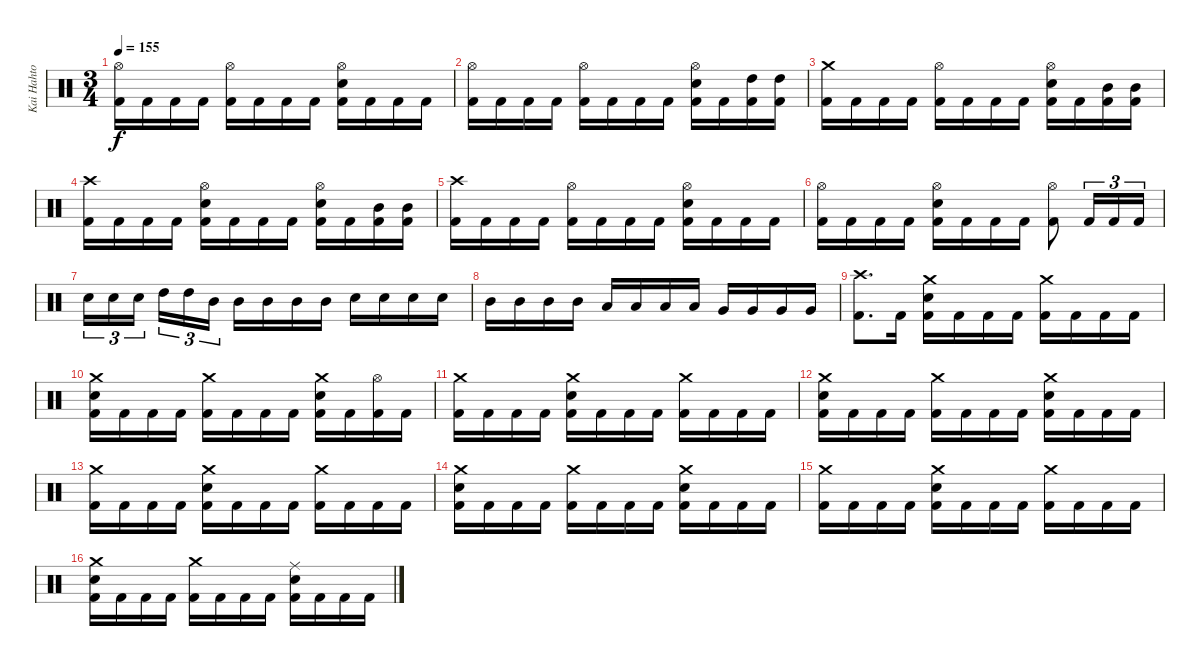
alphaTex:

\track ("Kai Hahto" "Kai Hahto") {instrument percussion}
\staff {score}
\articulation defaults
\ts (3 4)
\tempo 155
\clef neutral
\ks c
("Hi-Hat (open)" "Kick (hit) 2").16{dy f} "Kick (hit) 2".16 "Kick (hit) 2".16 "Kick (hit) 2".16 ("Hi-Hat (open)" "Kick (hit) 2").16 "Kick (hit) 2".16 "Kick (hit) 2".16 "Kick (hit) 2".16 ("Hi-Hat (open)" "Electric Snare (hit)" "Kick (hit) 2").16 "Kick (hit) 2".16 "Kick (hit) 2".16 "Kick (hit) 2".16 |
("Hi-Hat (open)" "Kick (hit) 2").16 "Kick (hit) 2".16 "Kick (hit) 2".16 "Kick (hit) 2".16 ("Hi-Hat (open)" "Kick (hit) 2").16 "Kick (hit) 2".16 "Kick (hit) 2".16 "Kick (hit) 2".16 ("Hi-Hat (open)" "Electric Snare (hit)" "Kick (hit) 2").16 "Kick (hit) 2".16 ("High Tom (hit)" "Kick (hit) 2").16 ("High Tom (hit)" "Kick (hit) 2").16 |
("Crash medium (hit)" "Kick (hit) 2").16 "Kick (hit) 2".16 "Kick (hit) 2".16 "Kick (hit) 2".16 ("Hi-Hat (open)" "Kick (hit) 2").16 "Kick (hit) 2".16 "Kick (hit) 2".16 "Kick (hit) 2".16 ("Hi-Hat (open)" "Electric Snare (hit)" "Kick (hit) 2").16 "Kick (hit) 2".16 ("Mid Tom (hit)" "Kick (hit) 2").16 ("Mid Tom (hit)" "Kick (hit) 2").16 |
("Crash high (hit)" "Kick (hit) 2").16 "Kick (hit) 2".16 "Kick (hit) 2".16 "Kick (hit) 2".16 ("Hi-Hat (open)" "Electric Snare (hit)" "Kick (hit) 2").16 "Kick (hit) 2".16 "Kick (hit) 2".16 "Kick (hit) 2".16 ("Hi-Hat (open)" "Electric Snare (hit)" "Kick (hit) 2").16 "Kick (hit) 2".16 ("Mid Tom (hit)" "Kick (hit) 2").16 ("Mid Tom (hit)" "Kick (hit) 2").16 |
("Crash high (hit)" "Kick (hit) 2").16 "Kick (hit) 2".16 "Kick (hit) 2".16 "Kick (hit) 2".16 ("Hi-Hat (open)" "Kick (hit) 2").16 "Kick (hit) 2".16 "Kick (hit) 2".16 "Kick (hit) 2".16 ("Hi-Hat (open)" "Electric Snare (hit)" "Kick (hit) 2").16 "Kick (hit) 2".16 "Kick (hit) 2".16 "Kick (hit) 2".16 |
("Hi-Hat (open)" "Kick (hit) 2").16 "Kick (hit) 2".16 "Kick (hit) 2".16 "Kick (hit) 2".16 ("Hi-Hat (open)" "Electric Snare (hit)" "Kick (hit) 2").16 "Kick (hit) 2".16 "Kick (hit) 2".16 "Kick (hit) 2".16 ("Hi-Hat (open)" "Kick (hit) 2").8 "Kick (hit) 2".16{tu (3 2)} "Kick (hit) 2".16{tu (3 2)} "Kick (hit) 2".16{tu (3 2)} |
"Electric Snare (hit)".16{tu (3 2)} "Electric Snare (hit)".16{tu (3 2)} "Electric Snare (hit)".16{tu (3 2)} "High Tom (hit)".16{tu (3 2)} "High Tom (hit)".16{tu (3 2)} "Mid Tom (hit)".16{tu (3 2)} "Mid Tom (hit)".16 "Mid Tom (hit)".16 "Mid Tom (hit)".16 "Mid Tom (hit)".16 "Electric Snare (hit)".16 "Electric Snare (hit)".16 "Electric Snare (hit)".16 "Electric Snare (hit)".16 |
"Mid Tom (hit)".16 "Mid Tom (hit)".16 "Mid Tom (hit)".16 "Mid Tom (hit)".16 "Low Tom (hit)".16 "Low Tom (hit)".16 "Low Tom (hit)".16 "Low Tom (hit)".16 "Very Low Tom (hit)".16 "Very Low Tom (hit)".16 "Very Low Tom (hit)".16 "Very Low Tom (hit)".16 |
("Crash high (hit)" "Kick (hit) 2").8{d} "Kick (hit) 2".16 ("Crash medium (hit)" "Electric Snare (hit)" "Kick (hit) 2").16 "Kick (hit) 2".16 "Kick (hit) 2".16 "Kick (hit) 2".16 ("Crash medium (hit)" "Kick (hit) 2").16 "Kick (hit) 2".16 "Kick (hit) 2".16 "Kick (hit) 2".16 |
("Crash medium (hit)" "Electric Snare (hit)" "Kick (hit) 2").16 "Kick (hit) 2".16 "Kick (hit) 2".16 "Kick (hit) 2".16 ("Crash medium (hit)" "Kick (hit) 2").16 "Kick (hit) 2".16 "Kick (hit) 2".16 "Kick (hit) 2".16 ("Crash medium (hit)" "Electric Snare (hit)" "Kick (hit) 2").16 "Kick (hit) 2".16 ("Hi-Hat (open)" "Kick (hit) 2").16 "Kick (hit) 2".16 |
("Crash medium (hit)" "Kick (hit) 2").16 "Kick (hit) 2".16 "Kick (hit) 2".16 "Kick (hit) 2".16 ("Crash medium (hit)" "Electric Snare (hit)" "Kick (hit) 2").16 "Kick (hit) 2".16 "Kick (hit) 2".16 "Kick (hit) 2".16 ("Crash medium (hit)" "Kick (hit) 2").16 "Kick (hit) 2".16 "Kick (hit) 2".16 "Kick (hit) 2".16 |
("Crash medium (hit)" "Electric Snare (hit)" "Kick (hit) 2").16 "Kick (hit) 2".16 "Kick (hit) 2".16 "Kick (hit) 2".16 ("Crash medium (hit)" "Kick (hit) 2").16 "Kick (hit) 2".16 "Kick (hit) 2".16 "Kick (hit) 2".16 ("Crash medium (hit)" "Electric Snare (hit)" "Kick (hit) 2").16 "Kick (hit) 2".16 "Kick (hit) 2".16 "Kick (hit) 2".16 |
("Crash medium (hit)" "Kick (hit) 2").16 "Kick (hit) 2".16 "Kick (hit) 2".16 "Kick (hit) 2".16 ("Crash medium (hit)" "Electric Snare (hit)" "Kick (hit) 2").16 "Kick (hit) 2".16 "Kick (hit) 2".16 "Kick (hit) 2".16 ("Crash medium (hit)" "Kick (hit) 2").16 "Kick (hit) 2".16 "Kick (hit) 2".16 "Kick (hit) 2".16 |
("Crash medium (hit)" "Electric Snare (hit)" "Kick (hit) 2").16 "Kick (hit) 2".16 "Kick (hit) 2".16 "Kick (hit) 2".16 ("Crash medium (hit)" "Kick (hit) 2").16 "Kick (hit) 2".16 "Kick (hit) 2".16 "Kick (hit) 2".16 ("Crash medium (hit)" "Electric Snare (hit)" "Kick (hit) 2").16 "Kick (hit) 2".16 "Kick (hit) 2".16 "Kick (hit) 2".16 |
("Crash medium (hit)" "Kick (hit) 2").16 "Kick (hit) 2".16 "Kick (hit) 2".16 "Kick (hit) 2".16 ("Crash medium (hit)" "Electric Snare (hit)" "Kick (hit) 2").16 "Kick (hit) 2".16 "Kick (hit) 2".16 "Kick (hit) 2".16 ("Crash medium (hit)" "Kick (hit) 2").16 "Kick (hit) 2".16 "Kick (hit) 2".16 "Kick (hit) 2".16 |
("Crash medium (hit)" "Electric Snare (hit)" "Kick (hit) 2").16 "Kick (hit) 2".16 "Kick (hit) 2".16 "Kick (hit) 2".16 ("Crash medium (hit)" "Kick (hit) 2").16 "Kick (hit) 2".16 "Kick (hit) 2".16 "Kick (hit) 2".16 ("Ride (middle)" "Electric Snare (hit)" "Kick (hit) 2").16 "Kick (hit) 2".16 "Kick (hit) 2".16 "Kick (hit) 2".16
